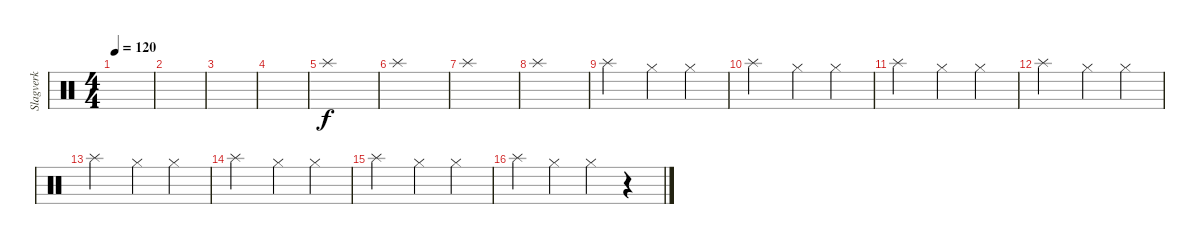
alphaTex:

\track ("Slagverk" "Slagverk") {instrument percussion}
\staff {score}
\articulation defaults
\ts (4 4)
\tempo 120
\clef neutral
\ks c
|
|
|
|
"Splash (hit)".1 |
"Splash (hit)".1 |
"Splash (hit)".1 |
"Splash (hit)".1 |
"Splash (hit)".2 "Hi-Hat (closed)".4 "Hi-Hat (closed)".4 |
"Splash (hit)".2 "Hi-Hat (closed)".4 "Hi-Hat (closed)".4 |
"Splash (hit)".2 "Hi-Hat (closed)".4 "Hi-Hat (closed)".4 |
"Splash (hit)".2 "Hi-Hat (closed)".4 "Hi-Hat (closed)".4 |
"Splash (hit)".2 "Hi-Hat (closed)".4 "Hi-Hat (closed)".4 |
"Splash (hit)".2 "Hi-Hat (closed)".4 "Hi-Hat (closed)".4 |
"Splash (hit)".2 "Hi-Hat (closed)".4 "Hi-Hat (closed)".4 |
"Splash (hit)".4 "Hi-Hat (closed)".4 "Hi-Hat (closed)".4 r.4
